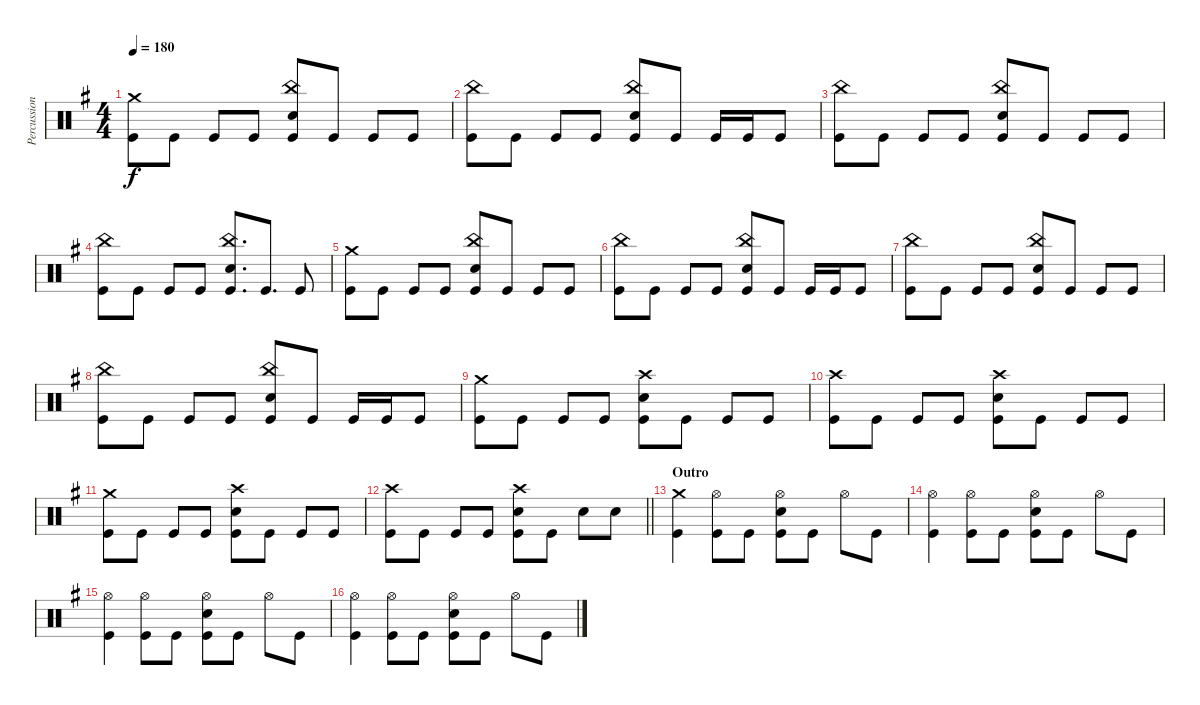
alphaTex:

\track ("Percussion" "Percussion") {instrument percussion}
\staff {score}
\articulation defaults
\ts (4 4)
\tempo 180
\clef neutral
\ks g
("Crash medium (hit)" "Kick (hit)").8{dy f} "Kick (hit)".8 "Kick (hit)".8 "Kick (hit)".8 ("China (hit)" "Electric Snare (hit)" "Kick (hit)").8 "Kick (hit)".8 "Kick (hit)".8 "Kick (hit)".8 |
("China (hit)" "Kick (hit)").8 "Kick (hit)".8 "Kick (hit)".8 "Kick (hit)".8 ("China (hit)" "Electric Snare (hit)" "Kick (hit)").8 "Kick (hit)".8 "Kick (hit)".16 "Kick (hit)".16 "Kick (hit)".8 |
("China (hit)" "Kick (hit)").8 "Kick (hit)".8 "Kick (hit)".8 "Kick (hit)".8 ("China (hit)" "Electric Snare (hit)" "Kick (hit)").8 "Kick (hit)".8 "Kick (hit)".8 "Kick (hit)".8 |
("China (hit)" "Kick (hit)").8 "Kick (hit)".8 "Kick (hit)".8 "Kick (hit)".8 ("China (hit)" "Electric Snare (hit)" "Kick (hit)").8{d} "Kick (hit)".8{d} "Kick (hit)".8 |
("Crash medium (hit)" "Kick (hit)").8 "Kick (hit)".8 "Kick (hit)".8 "Kick (hit)".8 ("China (hit)" "Electric Snare (hit)" "Kick (hit)").8 "Kick (hit)".8 "Kick (hit)".8 "Kick (hit)".8 |
("China (hit)" "Kick (hit)").8 "Kick (hit)".8 "Kick (hit)".8 "Kick (hit)".8 ("China (hit)" "Electric Snare (hit)" "Kick (hit)").8 "Kick (hit)".8 "Kick (hit)".16 "Kick (hit)".16 "Kick (hit)".8 |
("China (hit)" "Kick (hit)").8 "Kick (hit)".8 "Kick (hit)".8 "Kick (hit)".8 ("China (hit)" "Electric Snare (hit)" "Kick (hit)").8 "Kick (hit)".8 "Kick (hit)".8 "Kick (hit)".8 |
("China (hit)" "Kick (hit)").8 "Kick (hit)".8 "Kick (hit)".8 "Kick (hit)".8 ("China (hit)" "Electric Snare (hit)" "Kick (hit)").8 "Kick (hit)".8 "Kick (hit)".16 "Kick (hit)".16 "Kick (hit)".8 |
("Crash medium (hit)" "Kick (hit)").8 "Kick (hit)".8 "Kick (hit)".8 "Kick (hit)".8 ("Crash high (hit)" "Electric Snare (hit)" "Kick (hit)").8 "Kick (hit)".8 "Kick (hit)".8 "Kick (hit)".8 |
("Crash high (hit)" "Kick (hit)").8 "Kick (hit)".8 "Kick (hit)".8 "Kick (hit)".8 ("Crash high (hit)" "Electric Snare (hit)" "Kick (hit)").8 "Kick (hit)".8 "Kick (hit)".8 "Kick (hit)".8 |
("Crash medium (hit)" "Kick (hit)").8 "Kick (hit)".8 "Kick (hit)".8 "Kick (hit)".8 ("Crash high (hit)" "Electric Snare (hit)" "Kick (hit)").8 "Kick (hit)".8 "Kick (hit)".8 "Kick (hit)".8 |
\barLineRight lightlight
("Crash high (hit)" "Kick (hit)").8 "Kick (hit)".8 "Kick (hit)".8 "Kick (hit)".8 ("Crash high (hit)" "Electric Snare (hit)" "Kick (hit)").8 "Kick (hit)".8 "Electric Snare (hit)".8 "Electric Snare (hit)".8 |
\section ("" "Outro")
("Crash medium (hit)" "Kick (hit)").4 ("Hi-Hat (open)" "Kick (hit)").8 "Kick (hit)".8 ("Hi-Hat (open)" "Electric Snare (hit)" "Kick (hit)").8 "Kick (hit)".8 "Hi-Hat (open)".8 "Kick (hit)".8 |
("Hi-Hat (open)" "Kick (hit)").4 ("Hi-Hat (open)" "Kick (hit)").8 "Kick (hit)".8 ("Hi-Hat (open)" "Electric Snare (hit)" "Kick (hit)").8 "Kick (hit)".8 "Hi-Hat (open)".8 "Kick (hit)".8 |
("Hi-Hat (open)" "Kick (hit)").4 ("Hi-Hat (open)" "Kick (hit)").8 "Kick (hit)".8 ("Hi-Hat (open)" "Electric Snare (hit)" "Kick (hit)").8 "Kick (hit)".8 "Hi-Hat (open)".8 "Kick (hit)".8 |
("Hi-Hat (open)" "Kick (hit)").4 ("Hi-Hat (open)" "Kick (hit)").8 "Kick (hit)".8 ("Hi-Hat (open)" "Electric Snare (hit)" "Kick (hit)").8 "Kick (hit)".8 "Hi-Hat (open)".8 "Kick (hit)".8
